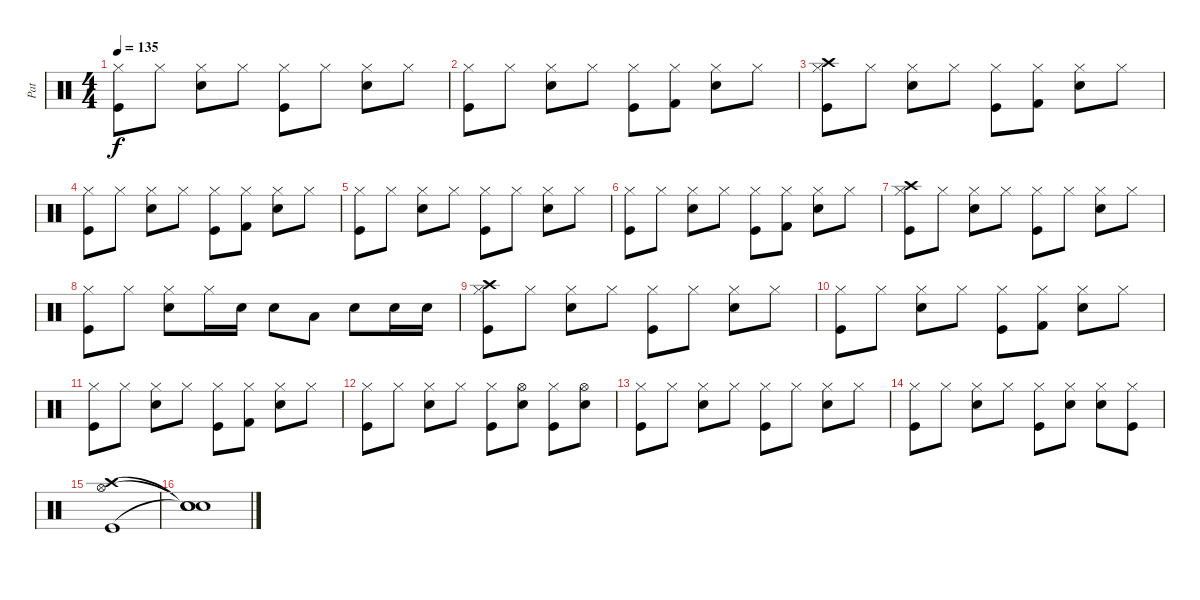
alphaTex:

\track ("Pat" "Pat") {instrument percussion}
\staff {score}
\articulation defaults
\ts (4 4)
\tempo 135
\clef neutral
\ks c
("Hi-Hat (closed)" "Kick (hit)").8{dy f} "Hi-Hat (closed)".8 ("Hi-Hat (closed)" "Snare (hit) 2").8 "Hi-Hat (closed)".8 ("Hi-Hat (closed)" "Kick (hit)").8 "Hi-Hat (closed)".8 ("Hi-Hat (closed)" "Snare (hit) 2").8 "Hi-Hat (closed)".8 |
("Hi-Hat (closed)" "Kick (hit)").8 "Hi-Hat (closed)".8 ("Hi-Hat (closed)" "Snare (hit) 2").8 "Hi-Hat (closed)".8 ("Hi-Hat (closed)" "Kick (hit)").8 ("Hi-Hat (closed)" "Kick (hit) 2").8 ("Hi-Hat (closed)" "Snare (hit) 2").8 "Hi-Hat (closed)".8 |
("Crash high (hit)" "Hi-Hat (closed)" "Kick (hit)").8 "Hi-Hat (closed)".8 ("Hi-Hat (closed)" "Snare (hit) 2").8 "Hi-Hat (closed)".8 ("Hi-Hat (closed)" "Kick (hit)").8 ("Hi-Hat (closed)" "Kick (hit) 2").8 ("Hi-Hat (closed)" "Snare (hit) 2").8 "Hi-Hat (closed)".8 |
("Hi-Hat (closed)" "Kick (hit)").8 "Hi-Hat (closed)".8 ("Hi-Hat (closed)" "Snare (hit) 2").8 "Hi-Hat (closed)".8 ("Hi-Hat (closed)" "Kick (hit)").8 ("Hi-Hat (closed)" "Kick (hit) 2").8 ("Hi-Hat (closed)" "Snare (hit) 2").8 "Hi-Hat (closed)".8 |
("Hi-Hat (closed)" "Kick (hit)").8 "Hi-Hat (closed)".8 ("Hi-Hat (closed)" "Snare (hit) 2").8 "Hi-Hat (closed)".8 ("Hi-Hat (closed)" "Kick (hit)").8 "Hi-Hat (closed)".8 ("Hi-Hat (closed)" "Snare (hit) 2").8 "Hi-Hat (closed)".8 |
("Hi-Hat (closed)" "Kick (hit)").8 "Hi-Hat (closed)".8 ("Hi-Hat (closed)" "Snare (hit) 2").8 "Hi-Hat (closed)".8 ("Hi-Hat (closed)" "Kick (hit)").8 ("Hi-Hat (closed)" "Kick (hit) 2").8 ("Hi-Hat (closed)" "Snare (hit) 2").8 "Hi-Hat (closed)".8 |
("Crash high (hit)" "Hi-Hat (closed)" "Kick (hit)").8 "Hi-Hat (closed)".8 ("Hi-Hat (closed)" "Snare (hit) 2").8 "Hi-Hat (closed)".8 ("Hi-Hat (closed)" "Kick (hit)").8 "Hi-Hat (closed)".8 ("Hi-Hat (closed)" "Snare (hit) 2").8 "Hi-Hat (closed)".8 |
("Hi-Hat (closed)" "Kick (hit)").8 "Hi-Hat (closed)".8 ("Hi-Hat (closed)" "Snare (hit) 2").8 "Hi-Hat (closed)".16 "Snare (hit) 2".16 "Snare (hit) 2".8 "Low Tom (hit)".8 "Snare (hit) 2".8 "Snare (hit) 2".16 "Snare (hit) 2".16 |
("Crash high (hit)" "Hi-Hat (closed)" "Kick (hit)").8 "Hi-Hat (closed)".8 ("Hi-Hat (closed)" "Snare (hit) 2").8 "Hi-Hat (closed)".8 ("Hi-Hat (closed)" "Kick (hit)").8 "Hi-Hat (closed)".8 ("Hi-Hat (closed)" "Snare (hit) 2").8 "Hi-Hat (closed)".8 |
("Hi-Hat (closed)" "Kick (hit)").8 "Hi-Hat (closed)".8 ("Hi-Hat (closed)" "Snare (hit) 2").8 "Hi-Hat (closed)".8 ("Hi-Hat (closed)" "Kick (hit)").8 ("Hi-Hat (closed)" "Kick (hit) 2").8 ("Hi-Hat (closed)" "Snare (hit) 2").8 "Hi-Hat (closed)".8 |
("Hi-Hat (closed)" "Kick (hit)").8 "Hi-Hat (closed)".8 ("Hi-Hat (closed)" "Snare (hit) 2").8 "Hi-Hat (closed)".8 ("Hi-Hat (closed)" "Kick (hit)").8 ("Hi-Hat (closed)" "Kick (hit) 2").8 ("Hi-Hat (closed)" "Snare (hit) 2").8 "Hi-Hat (closed)".8 |
("Hi-Hat (closed)" "Kick (hit)").8 "Hi-Hat (closed)".8 ("Hi-Hat (closed)" "Snare (hit) 2").8 "Hi-Hat (closed)".8 ("Hi-Hat (closed)" "Kick (hit)").8 ("Hi-Hat (open)" "Snare (hit) 2").8 ("Hi-Hat (closed)" "Kick (hit)").8 ("Hi-Hat (open)" "Snare (hit) 2").8 |
("Hi-Hat (closed)" "Kick (hit)").8 "Hi-Hat (closed)".8 ("Hi-Hat (closed)" "Snare (hit) 2").8 "Hi-Hat (closed)".8 ("Hi-Hat (closed)" "Kick (hit)").8 "Hi-Hat (closed)".8 ("Hi-Hat (closed)" "Snare (hit) 2").8 "Hi-Hat (closed)".8 |
("Hi-Hat (closed)" "Kick (hit)").8 "Hi-Hat (closed)".8 ("Hi-Hat (closed)" "Snare (hit) 2").8 "Hi-Hat (closed)".8 ("Hi-Hat (closed)" "Kick (hit)").8 ("Hi-Hat (closed)" "Snare (hit) 2").8 ("Hi-Hat (closed)" "Snare (hit) 2").8 ("Hi-Hat (closed)" "Kick (hit)").8 |
("Crash high (hit)" "Hi-Hat (open)" "Kick (hit)").1 |
("Snare (hit)"{t} "Snare (hit)"{t} "Snare (hit)"{t}).1
